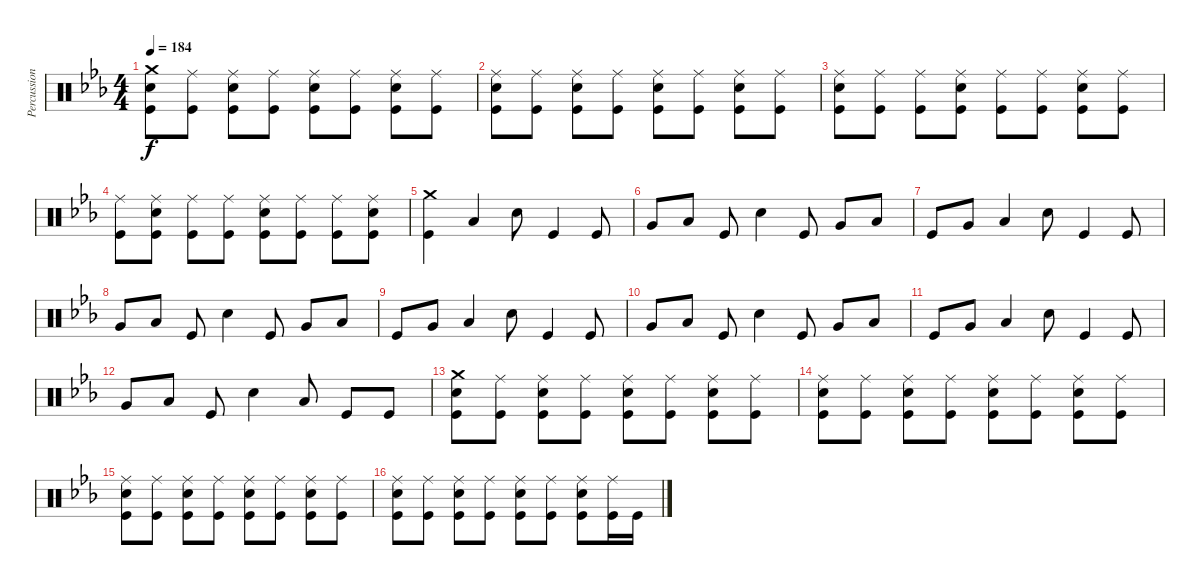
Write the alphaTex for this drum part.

\track ("Percussion" "Percussion") {instrument percussion}
\staff {score}
\articulation defaults
\ts (4 4)
\tempo 184
\clef neutral
\ks eb
("Crash medium (hit)" "Electric Snare (hit)" "Kick (hit)").8{dy f} ("Ride (middle)" "Kick (hit)").8 ("Ride (middle)" "Electric Snare (hit)" "Kick (hit)").8 ("Ride (middle)" "Kick (hit)").8 ("Ride (middle)" "Electric Snare (hit)" "Kick (hit)").8 ("Ride (middle)" "Kick (hit)").8 ("Ride (middle)" "Electric Snare (hit)" "Kick (hit)").8 ("Ride (middle)" "Kick (hit)").8 |
("Ride (middle)" "Electric Snare (hit)" "Kick (hit)").8 ("Ride (middle)" "Kick (hit)").8 ("Ride (middle)" "Electric Snare (hit)" "Kick (hit)").8 ("Ride (middle)" "Kick (hit)").8 ("Ride (middle)" "Electric Snare (hit)" "Kick (hit)").8 ("Ride (middle)" "Kick (hit)").8 ("Ride (middle)" "Electric Snare (hit)" "Kick (hit)").8 ("Ride (middle)" "Kick (hit)").8 |
("Ride (middle)" "Electric Snare (hit)" "Kick (hit)").8 ("Ride (middle)" "Kick (hit)").8 ("Ride (middle)" "Kick (hit)").8 ("Ride (middle)" "Electric Snare (hit)" "Kick (hit)").8 ("Ride (middle)" "Kick (hit)").8 ("Ride (middle)" "Kick (hit)").8 ("Ride (middle)" "Electric Snare (hit)" "Kick (hit)").8 ("Ride (middle)" "Kick (hit)").8 |
("Ride (middle)" "Kick (hit)").8 ("Ride (middle)" "Electric Snare (hit)" "Kick (hit)").8 ("Ride (middle)" "Kick (hit)").8 ("Ride (middle)" "Kick (hit)").8 ("Ride (middle)" "Electric Snare (hit)" "Kick (hit)").8 ("Ride (middle)" "Kick (hit)").8 ("Ride (middle)" "Kick (hit)").8 ("Ride (middle)" "Electric Snare (hit)" "Kick (hit)").8 |
("Crash medium (hit)" "Kick (hit)").4 "Low Floor Tom (hit)".4 "Electric Snare (hit)".8 "Kick (hit)".4 "Kick (hit)".8 |
"Very Low Tom (hit)".8 "Low Floor Tom (hit)".8 "Kick (hit)".8 "Electric Snare (hit)".4 "Kick (hit)".8 "Very Low Tom (hit)".8 "Low Floor Tom (hit)".8 |
"Kick (hit)".8 "Very Low Tom (hit)".8 "Low Floor Tom (hit)".4 "Electric Snare (hit)".8 "Kick (hit)".4 "Kick (hit)".8 |
"Very Low Tom (hit)".8 "Low Floor Tom (hit)".8 "Kick (hit)".8 "Electric Snare (hit)".4 "Kick (hit)".8 "Very Low Tom (hit)".8 "Low Floor Tom (hit)".8 |
"Kick (hit)".8 "Very Low Tom (hit)".8 "Low Floor Tom (hit)".4 "Electric Snare (hit)".8 "Kick (hit)".4 "Kick (hit)".8 |
"Very Low Tom (hit)".8 "Low Floor Tom (hit)".8 "Kick (hit)".8 "Electric Snare (hit)".4 "Kick (hit)".8 "Very Low Tom (hit)".8 "Low Floor Tom (hit)".8 |
"Kick (hit)".8 "Very Low Tom (hit)".8 "Low Floor Tom (hit)".4 "Electric Snare (hit)".8 "Kick (hit)".4 "Kick (hit)".8 |
"Very Low Tom (hit)".8 "Low Floor Tom (hit)".8 "Kick (hit)".8 "Electric Snare (hit)".4 "Low Floor Tom (hit)".8 "Kick (hit)".8 "Kick (hit)".8 |
("Crash medium (hit)" "Electric Snare (hit)" "Kick (hit)").8 ("Ride (middle)" "Kick (hit)").8 ("Ride (middle)" "Electric Snare (hit)" "Kick (hit)").8 ("Ride (middle)" "Kick (hit)").8 ("Ride (middle)" "Electric Snare (hit)" "Kick (hit)").8 ("Ride (middle)" "Kick (hit)").8 ("Ride (middle)" "Electric Snare (hit)" "Kick (hit)").8 ("Ride (middle)" "Kick (hit)").8 |
("Ride (middle)" "Electric Snare (hit)" "Kick (hit)").8 ("Ride (middle)" "Kick (hit)").8 ("Ride (middle)" "Electric Snare (hit)" "Kick (hit)").8 ("Ride (middle)" "Kick (hit)").8 ("Ride (middle)" "Electric Snare (hit)" "Kick (hit)").8 ("Ride (middle)" "Kick (hit)").8 ("Ride (middle)" "Electric Snare (hit)" "Kick (hit)").8 ("Ride (middle)" "Kick (hit)").8 |
("Ride (middle)" "Electric Snare (hit)" "Kick (hit)").8 ("Ride (middle)" "Kick (hit)").8 ("Ride (middle)" "Electric Snare (hit)" "Kick (hit)").8 ("Ride (middle)" "Kick (hit)").8 ("Ride (middle)" "Electric Snare (hit)" "Kick (hit)").8 ("Ride (middle)" "Kick (hit)").8 ("Ride (middle)" "Electric Snare (hit)" "Kick (hit)").8 ("Ride (middle)" "Kick (hit)").8 |
("Ride (middle)" "Electric Snare (hit)" "Kick (hit)").8 ("Ride (middle)" "Kick (hit)").8 ("Ride (middle)" "Electric Snare (hit)" "Kick (hit)").8 ("Ride (middle)" "Kick (hit)").8 ("Ride (middle)" "Electric Snare (hit)" "Kick (hit)").8 ("Ride (middle)" "Kick (hit)").8 ("Ride (middle)" "Electric Snare (hit)" "Kick (hit)").8 ("Ride (middle)" "Kick (hit)").16 "Kick (hit)".16
